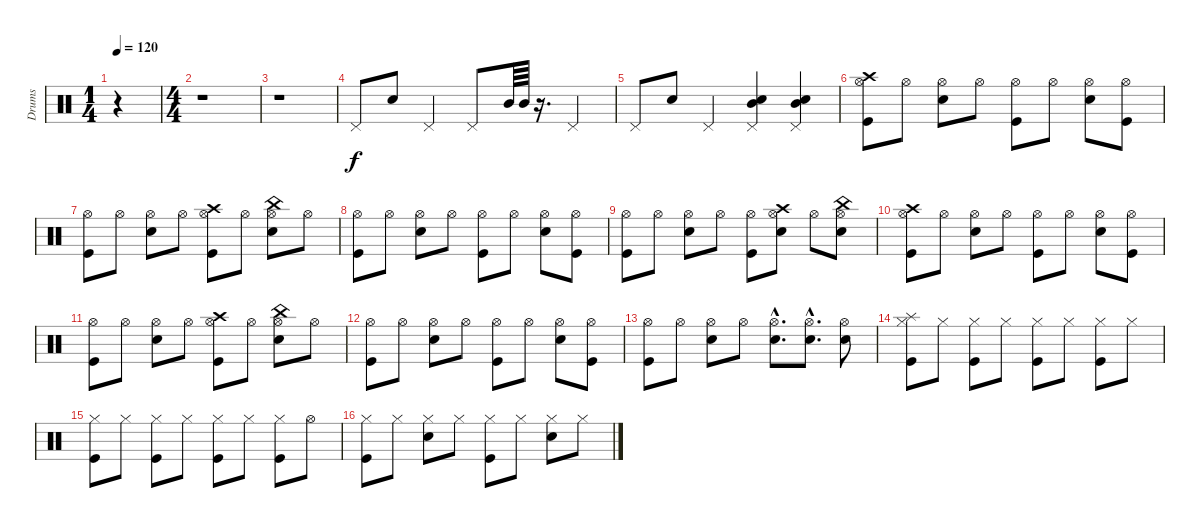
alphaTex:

\track ("Drums" "Drums") {instrument percussion}
\staff {score}
\articulation defaults
\ts (1 4)
\tempo 120
\clef neutral
\ks c
r.4{dy f} |
\ts (4 4)
r.1 |
r.1 |
"Pedal Hi-Hat (hit)".8 "Snare (hit) 2".8 "Pedal Hi-Hat (hit)".4 "Pedal Hi-Hat (hit)".8 "Mid Tom (hit)".64 "Mid Tom (hit)".64 r.16{d} "Pedal Hi-Hat (hit)".4 |
"Pedal Hi-Hat (hit)".8 "Snare (hit) 2".8 "Pedal Hi-Hat (hit)".4 ("Pedal Hi-Hat (hit)" "Snare (hit) 2" "Mid Tom (hit)").4 ("Pedal Hi-Hat (hit)" "Snare (hit) 2" "Mid Tom (hit)").4 |
("Hi-Hat (open)" "Kick (hit)" "Crash high (hit)").8 "Hi-Hat (open)".8 ("Hi-Hat (open)" "Snare (hit) 2").8 "Hi-Hat (open)".8 ("Hi-Hat (open)" "Kick (hit)").8 "Hi-Hat (open)".8 ("Hi-Hat (open)" "Snare (hit) 2").8 ("Hi-Hat (open)" "Kick (hit)").8 |
("Hi-Hat (open)" "Kick (hit)").8 "Hi-Hat (open)".8 ("Hi-Hat (open)" "Snare (hit) 2").8 "Hi-Hat (open)".8 ("Hi-Hat (open)" "Kick (hit)" "Crash high (hit)").8 "Hi-Hat (open)".8 ("Hi-Hat (open)" "Snare (hit) 2" "China (hit)").8 "Hi-Hat (open)".8 |
("Hi-Hat (open)" "Kick (hit)").8 "Hi-Hat (open)".8 ("Hi-Hat (open)" "Snare (hit) 2").8 "Hi-Hat (open)".8 ("Hi-Hat (open)" "Kick (hit)").8 "Hi-Hat (open)".8 ("Hi-Hat (open)" "Snare (hit) 2").8 ("Hi-Hat (open)" "Kick (hit)").8 |
("Hi-Hat (open)" "Kick (hit)").8 "Hi-Hat (open)".8 ("Hi-Hat (open)" "Snare (hit) 2").8 "Hi-Hat (open)".8 ("Hi-Hat (open)" "Kick (hit)").8 ("Hi-Hat (open)" "Snare (hit) 2" "Crash high (hit)").8 "Hi-Hat (open)".8 ("Hi-Hat (open)" "Snare (hit) 2" "China (hit)").8 |
("Hi-Hat (open)" "Kick (hit)" "Crash high (hit)").8 "Hi-Hat (open)".8 ("Hi-Hat (open)" "Snare (hit) 2").8 "Hi-Hat (open)".8 ("Hi-Hat (open)" "Kick (hit)").8 "Hi-Hat (open)".8 ("Hi-Hat (open)" "Snare (hit) 2").8 ("Hi-Hat (open)" "Kick (hit)").8 |
("Hi-Hat (open)" "Kick (hit)").8 "Hi-Hat (open)".8 ("Hi-Hat (open)" "Snare (hit) 2").8 "Hi-Hat (open)".8 ("Hi-Hat (open)" "Kick (hit)" "Crash high (hit)").8 "Hi-Hat (open)".8 ("Hi-Hat (open)" "Snare (hit) 2" "China (hit)").8 "Hi-Hat (open)".8 |
("Hi-Hat (open)" "Kick (hit)").8 "Hi-Hat (open)".8 ("Hi-Hat (open)" "Snare (hit) 2").8 "Hi-Hat (open)".8 ("Hi-Hat (open)" "Kick (hit)").8 "Hi-Hat (open)".8 ("Hi-Hat (open)" "Snare (hit) 2").8 ("Hi-Hat (open)" "Kick (hit)").8 |
("Hi-Hat (open)" "Kick (hit)").8 "Hi-Hat (open)".8 ("Hi-Hat (open)" "Snare (hit) 2").8 "Hi-Hat (open)".8 ("Hi-Hat (open)"{hac} "Snare (hit) 2"{hac}).8{d} ("Hi-Hat (open)"{hac} "Snare (hit) 2"{hac}).8{d} ("Hi-Hat (open)" "Snare (hit) 2").8 |
("Hi-Hat (closed)" "Kick (hit)" "Splash (hit)").8 "Hi-Hat (closed)".8 ("Hi-Hat (closed)" "Kick (hit)").8 "Hi-Hat (closed)".8 ("Hi-Hat (closed)" "Kick (hit)").8 "Hi-Hat (closed)".8 ("Hi-Hat (closed)" "Kick (hit)").8 "Hi-Hat (closed)".8 |
("Hi-Hat (closed)" "Kick (hit)").8 "Hi-Hat (closed)".8 ("Hi-Hat (closed)" "Kick (hit)").8 "Hi-Hat (closed)".8 ("Hi-Hat (closed)" "Kick (hit)").8 "Hi-Hat (closed)".8 ("Hi-Hat (closed)" "Kick (hit)").8 "Hi-Hat (open)".8 |
("Hi-Hat (closed)" "Kick (hit)").8 "Hi-Hat (closed)".8 ("Hi-Hat (closed)" "Snare (hit) 2").8 "Hi-Hat (closed)".8 ("Hi-Hat (closed)" "Kick (hit)").8 "Hi-Hat (closed)".8 ("Hi-Hat (closed)" "Snare (hit) 2").8 "Hi-Hat (closed)".8
